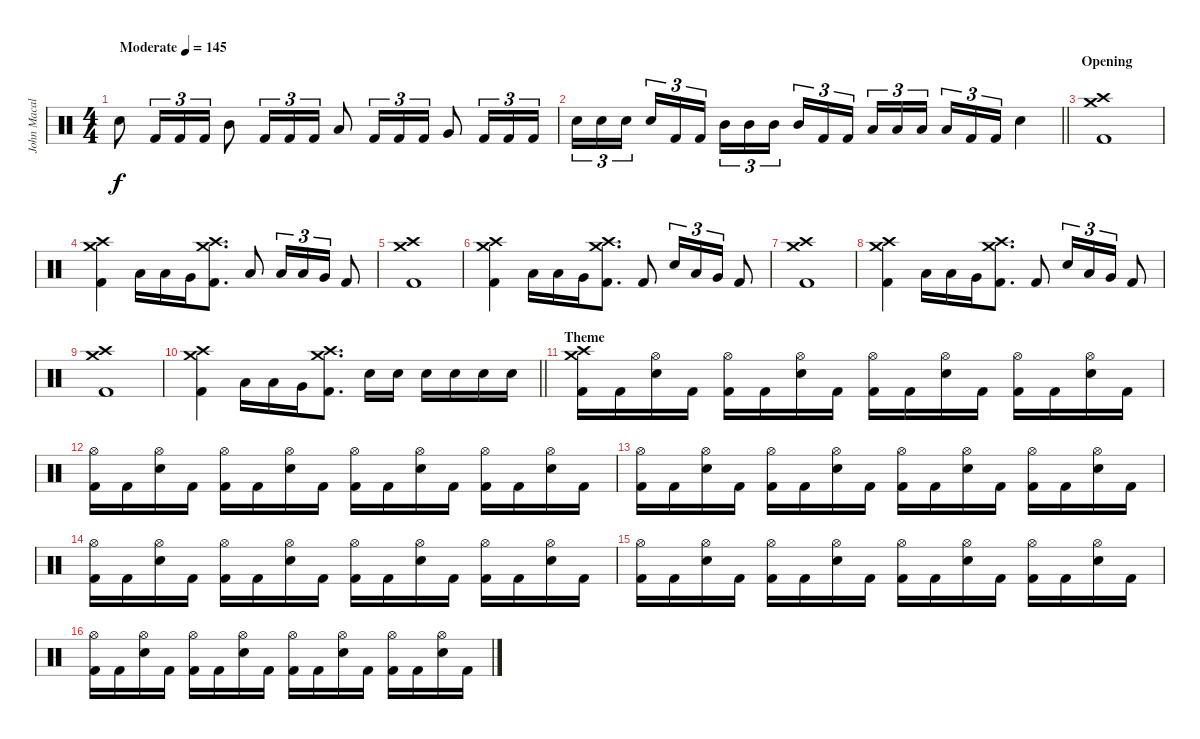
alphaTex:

\track ("John Macaluso" "John Macal") {instrument percussion}
\staff {score}
\articulation defaults
\ts (4 4)
\tempo (145 "Moderate")
\clef neutral
\ks c "Snare (hit) 2".8{dy f} "Kick (hit) 2".16{tu (3 2)} "Kick (hit) 2".16{tu (3 2)} "Kick (hit) 2".16{tu (3 2)} "Mid Tom (hit)".8 "Kick (hit) 2".16{tu (3 2)} "Kick (hit) 2".16{tu (3 2)} "Kick (hit) 2".16{tu (3 2)} "Low Tom (hit)".8 "Kick (hit) 2".16{tu (3 2)} "Kick (hit) 2".16{tu (3 2)} "Kick (hit) 2".16{tu (3 2)} "Very Low Tom (hit)".8 "Kick (hit) 2".16{tu (3 2)} "Kick (hit) 2".16{tu (3 2)} "Kick (hit) 2".16{tu (3 2)}
|
\barLineRight lightlight "Snare (hit) 2".16{tu (3 2)} "Snare (hit) 2".16{tu (3 2)} "Snare (hit) 2".16{tu (3 2) beam splitsecondary} "Snare (hit) 2".16{tu (3 2)} "Kick (hit) 2".16{tu (3 2)} "Kick (hit) 2".16{tu (3 2)} "Mid Tom (hit)".16{tu (3 2)} "Mid Tom (hit)".16{tu (3 2)} "Mid Tom (hit)".16{tu (3 2) beam splitsecondary} "Mid Tom (hit)".16{tu (3 2)} "Kick (hit) 2".16{tu (3 2)} "Kick (hit) 2".16{tu (3 2)} "Low Tom (hit)".16{tu (3 2)} "Low Tom (hit)".16{tu (3 2)} "Low Tom (hit)".16{tu (3 2) beam splitsecondary} "Low Tom (hit)".16{tu (3 2)} "Kick (hit) 2".16{tu (3 2)} "Kick (hit) 2".16{tu (3 2)} "Snare (hit) 2".4
|
\section ("" "Opening")
("Crash medium (hit)" "Crash high (hit)" "Kick (hit) 2").1 |
("Crash medium (hit)" "Crash high (hit)" "Kick (hit) 2").4 "Low Tom (hit)".16 "Low Tom (hit)".16 "Very Low Tom (hit)".16 ("Crash medium (hit)" "Crash high (hit)" "Kick (hit) 2").8{d} "Low Tom (hit)".8 "Low Tom (hit)".16{tu (3 2)} "Low Tom (hit)".16{tu (3 2)} "Very Low Tom (hit)".16{tu (3 2)} "Kick (hit) 2".8 |
("Crash medium (hit)" "Crash high (hit)" "Kick (hit) 2").1 |
("Crash medium (hit)" "Crash high (hit)" "Kick (hit) 2").4 "Low Tom (hit)".16 "Low Tom (hit)".16 "Very Low Tom (hit)".16 ("Crash medium (hit)" "Crash high (hit)" "Kick (hit) 2").8{d} "Kick (hit) 2".8 "Snare (hit) 2".16{tu (3 2)} "Low Tom (hit)".16{tu (3 2)} "Very Low Tom (hit)".16{tu (3 2)} "Kick (hit) 2".8 |
("Crash medium (hit)" "Crash high (hit)" "Kick (hit) 2").1 |
("Crash medium (hit)" "Crash high (hit)" "Kick (hit) 2").4 "Low Tom (hit)".16 "Low Tom (hit)".16 "Very Low Tom (hit)".16 ("Crash medium (hit)" "Crash high (hit)" "Kick (hit) 2").8{d} "Kick (hit) 2".8 "Snare (hit) 2".16{tu (3 2)} "Low Tom (hit)".16{tu (3 2)} "Very Low Tom (hit)".16{tu (3 2)} "Kick (hit) 2".8 |
("Crash medium (hit)" "Crash high (hit)" "Kick (hit) 2").1 |
\barLineRight lightlight
("Crash medium (hit)" "Crash high (hit)" "Kick (hit) 2").4 "Low Tom (hit)".16 "Low Tom (hit)".16 "Very Low Tom (hit)".16 ("Crash medium (hit)" "Crash high (hit)" "Kick (hit) 2").8{d} "Snare (hit) 2".16 "Snare (hit) 2".16 "Snare (hit) 2".16 "Snare (hit) 2".16 "Snare (hit) 2".16 "Snare (hit) 2".16 |
\section ("" "Theme")
("Crash high (hit)" "Crash medium (hit)" "Kick (hit) 2").16 "Kick (hit) 2".16 ("Hi-Hat (open)" "Snare (hit) 2").16 "Kick (hit) 2".16 ("Hi-Hat (open)" "Kick (hit) 2").16 "Kick (hit) 2".16 ("Hi-Hat (open)" "Snare (hit) 2").16 "Kick (hit) 2".16 ("Hi-Hat (open)" "Kick (hit) 2").16 "Kick (hit) 2".16 ("Hi-Hat (open)" "Snare (hit) 2").16 "Kick (hit) 2".16 ("Hi-Hat (open)" "Kick (hit) 2").16 "Kick (hit) 2".16 ("Hi-Hat (open)" "Snare (hit) 2").16 "Kick (hit) 2".16 |
("Hi-Hat (open)" "Kick (hit) 2").16 "Kick (hit) 2".16 ("Hi-Hat (open)" "Snare (hit) 2").16 "Kick (hit) 2".16 ("Hi-Hat (open)" "Kick (hit) 2").16 "Kick (hit) 2".16 ("Hi-Hat (open)" "Snare (hit) 2").16 "Kick (hit) 2".16 ("Hi-Hat (open)" "Kick (hit) 2").16 "Kick (hit) 2".16 ("Hi-Hat (open)" "Snare (hit) 2").16 "Kick (hit) 2".16 ("Hi-Hat (open)" "Kick (hit) 2").16 "Kick (hit) 2".16 ("Hi-Hat (open)" "Snare (hit) 2").16 "Kick (hit) 2".16 |
("Hi-Hat (open)" "Kick (hit) 2").16 "Kick (hit) 2".16 ("Hi-Hat (open)" "Snare (hit) 2").16 "Kick (hit) 2".16 ("Hi-Hat (open)" "Kick (hit) 2").16 "Kick (hit) 2".16 ("Hi-Hat (open)" "Snare (hit) 2").16 "Kick (hit) 2".16 ("Hi-Hat (open)" "Kick (hit) 2").16 "Kick (hit) 2".16 ("Hi-Hat (open)" "Snare (hit) 2").16 "Kick (hit) 2".16 ("Hi-Hat (open)" "Kick (hit) 2").16 "Kick (hit) 2".16 ("Hi-Hat (open)" "Snare (hit) 2").16 "Kick (hit) 2".16 |
("Hi-Hat (open)" "Kick (hit) 2").16 "Kick (hit) 2".16 ("Hi-Hat (open)" "Snare (hit) 2").16 "Kick (hit) 2".16 ("Hi-Hat (open)" "Kick (hit) 2").16 "Kick (hit) 2".16 ("Hi-Hat (open)" "Snare (hit) 2").16 "Kick (hit) 2".16 ("Hi-Hat (open)" "Kick (hit) 2").16 "Kick (hit) 2".16 ("Hi-Hat (open)" "Snare (hit) 2").16 "Kick (hit) 2".16 ("Hi-Hat (open)" "Kick (hit) 2").16 "Kick (hit) 2".16 ("Hi-Hat (open)" "Snare (hit) 2").16 "Kick (hit) 2".16 |
("Hi-Hat (open)" "Kick (hit) 2").16 "Kick (hit) 2".16 ("Hi-Hat (open)" "Snare (hit) 2").16 "Kick (hit) 2".16 ("Hi-Hat (open)" "Kick (hit) 2").16 "Kick (hit) 2".16 ("Hi-Hat (open)" "Snare (hit) 2").16 "Kick (hit) 2".16 ("Hi-Hat (open)" "Kick (hit) 2").16 "Kick (hit) 2".16 ("Hi-Hat (open)" "Snare (hit) 2").16 "Kick (hit) 2".16 ("Hi-Hat (open)" "Kick (hit) 2").16 "Kick (hit) 2".16 ("Hi-Hat (open)" "Snare (hit) 2").16 "Kick (hit) 2".16 |
("Hi-Hat (open)" "Kick (hit) 2").16 "Kick (hit) 2".16 ("Hi-Hat (open)" "Snare (hit) 2").16 "Kick (hit) 2".16 ("Hi-Hat (open)" "Kick (hit) 2").16 "Kick (hit) 2".16 ("Hi-Hat (open)" "Snare (hit) 2").16 "Kick (hit) 2".16 ("Hi-Hat (open)" "Kick (hit) 2").16 "Kick (hit) 2".16 ("Hi-Hat (open)" "Snare (hit) 2").16 "Kick (hit) 2".16 ("Hi-Hat (open)" "Kick (hit) 2").16 "Kick (hit) 2".16 ("Hi-Hat (open)" "Snare (hit) 2").16 "Kick (hit) 2".16
